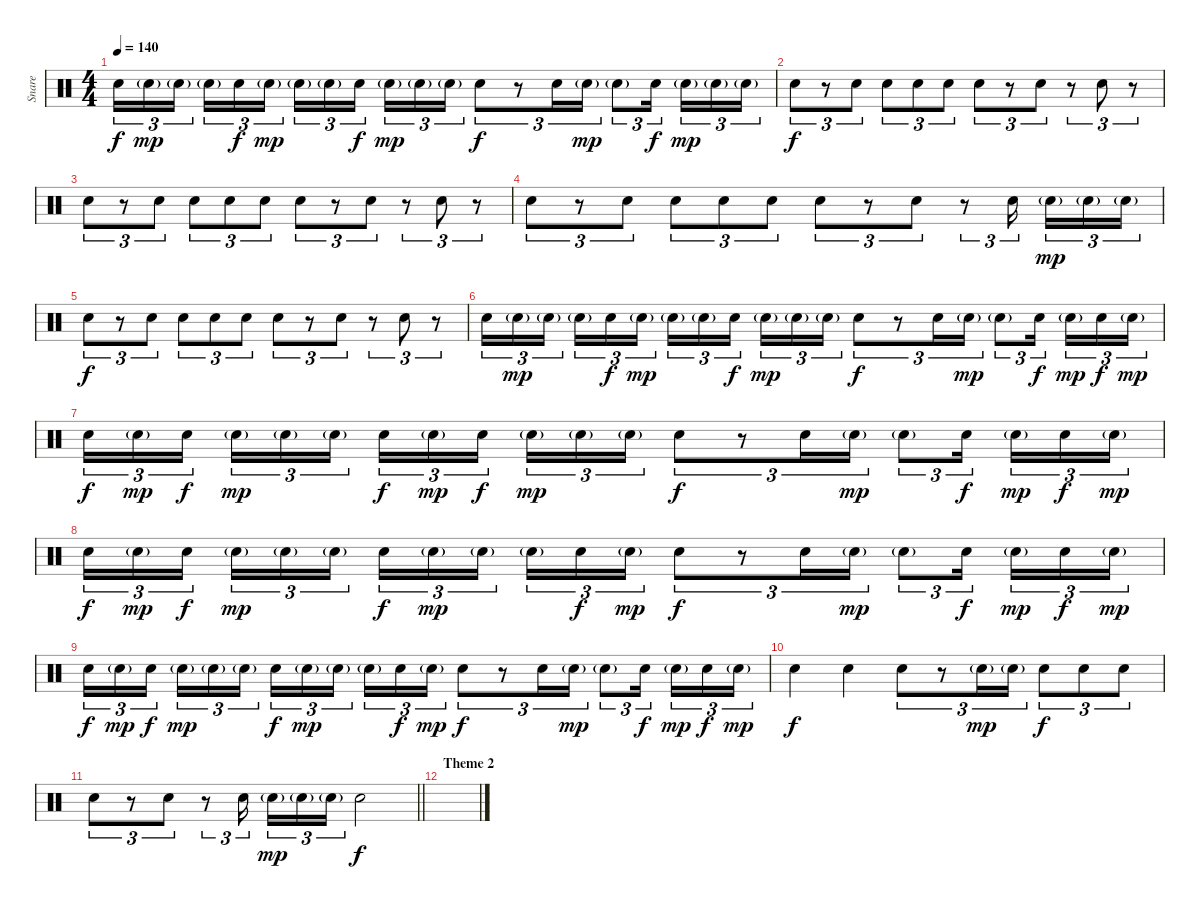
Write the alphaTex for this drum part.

\track ("Snare" "Snare") {instrument percussion}
\staff {score}
\articulation defaults
\ts (4 4)
\tempo 140
\clef neutral
\ks c "Electric Snare (hit)".16{tu (3 2) dy f} "Electric Snare (hit)"{g}.16{tu (3 2) dy mp} "Electric Snare (hit)"{g}.16{tu (3 2) beam splitsecondary} "Electric Snare (hit)"{g}.16{tu (3 2)} "Electric Snare (hit)".16{tu (3 2) dy f} "Electric Snare (hit)"{g}.16{tu (3 2) dy mp} "Electric Snare (hit)"{g}.16{tu (3 2)} "Electric Snare (hit)"{g}.16{tu (3 2)} "Electric Snare (hit)".16{tu (3 2) dy f beam splitsecondary} "Electric Snare (hit)"{g}.16{tu (3 2) dy mp} "Electric Snare (hit)"{g}.16{tu (3 2)} "Electric Snare (hit)"{g}.16{tu (3 2)} "Electric Snare (hit)".8{tu (3 2) dy f}
r.8{tu (3 2)} "Electric Snare (hit)".16{tu (3 2)} "Electric Snare (hit)"{g}.16{tu (3 2) dy mp} "Electric Snare (hit)"{g}.8{tu (3 2)} "Electric Snare (hit)".16{tu (3 2) dy f beam splitsecondary} "Electric Snare (hit)"{g}.16{tu (3 2) dy mp} "Electric Snare (hit)"{g}.16{tu (3 2)} "Electric Snare (hit)"{g}.16{tu (3 2)} |
"Electric Snare (hit)".8{tu (3 2) dy f} r.8{tu (3 2)} "Electric Snare (hit)".8{tu (3 2)} "Electric Snare (hit)".8{tu (3 2)} "Electric Snare (hit)".8{tu (3 2)} "Electric Snare (hit)".8{tu (3 2)} "Electric Snare (hit)".8{tu (3 2)} r.8{tu (3 2)} "Electric Snare (hit)".8{tu (3 2)} r.8{tu (3 2)} "Electric Snare (hit)".8{tu (3 2)} r.8{tu (3 2)} |
"Electric Snare (hit)".8{tu (3 2)} r.8{tu (3 2)} "Electric Snare (hit)".8{tu (3 2)} "Electric Snare (hit)".8{tu (3 2)} "Electric Snare (hit)".8{tu (3 2)} "Electric Snare (hit)".8{tu (3 2)} "Electric Snare (hit)".8{tu (3 2)} r.8{tu (3 2)} "Electric Snare (hit)".8{tu (3 2)} r.8{tu (3 2)} "Electric Snare (hit)".8{tu (3 2)} r.8{tu (3 2)} |
"Electric Snare (hit)".8{tu (3 2)} r.8{tu (3 2)} "Electric Snare (hit)".8{tu (3 2)} "Electric Snare (hit)".8{tu (3 2)} "Electric Snare (hit)".8{tu (3 2)} "Electric Snare (hit)".8{tu (3 2)} "Electric Snare (hit)".8{tu (3 2)} r.8{tu (3 2)} "Electric Snare (hit)".8{tu (3 2)} r.8{tu (3 2)} "Electric Snare (hit)".16{tu (3 2) beam splitsecondary} "Electric Snare (hit)"{g}.16{tu (3 2) dy mp} "Electric Snare (hit)"{g}.16{tu (3 2)} "Electric Snare (hit)"{g}.16{tu (3 2)} |
"Electric Snare (hit)".8{tu (3 2) dy f} r.8{tu (3 2)} "Electric Snare (hit)".8{tu (3 2)} "Electric Snare (hit)".8{tu (3 2)} "Electric Snare (hit)".8{tu (3 2)} "Electric Snare (hit)".8{tu (3 2)} "Electric Snare (hit)".8{tu (3 2)} r.8{tu (3 2)} "Electric Snare (hit)".8{tu (3 2)} r.8{tu (3 2)} "Electric Snare (hit)".8{tu (3 2)} r.8{tu (3 2)} |
"Electric Snare (hit)".16{tu (3 2)} "Electric Snare (hit)"{g}.16{tu (3 2) dy mp} "Electric Snare (hit)"{g}.16{tu (3 2) beam splitsecondary} "Electric Snare (hit)"{g}.16{tu (3 2)} "Electric Snare (hit)".16{tu (3 2) dy f} "Electric Snare (hit)"{g}.16{tu (3 2) dy mp} "Electric Snare (hit)"{g}.16{tu (3 2)} "Electric Snare (hit)"{g}.16{tu (3 2)} "Electric Snare (hit)".16{tu (3 2) dy f beam splitsecondary} "Electric Snare (hit)"{g}.16{tu (3 2) dy mp} "Electric Snare (hit)"{g}.16{tu (3 2)} "Electric Snare (hit)"{g}.16{tu (3 2)} "Electric Snare (hit)".8{tu (3 2) dy f} r.8{tu (3 2)} "Electric Snare (hit)".16{tu (3 2)} "Electric Snare (hit)"{g}.16{tu (3 2) dy mp} "Electric Snare (hit)"{g}.8{tu (3 2)} "Electric Snare (hit)".16{tu (3 2) dy f beam splitsecondary} "Electric Snare (hit)"{g}.16{tu (3 2) dy mp} "Electric Snare (hit)".16{tu (3 2) dy f} "Electric Snare (hit)"{g}.16{tu (3 2) dy mp} |
"Electric Snare (hit)".16{tu (3 2) dy f} "Electric Snare (hit)"{g}.16{tu (3 2) dy mp} "Electric Snare (hit)".16{tu (3 2) dy f beam splitsecondary} "Electric Snare (hit)"{g}.16{tu (3 2) dy mp} "Electric Snare (hit)"{g}.16{tu (3 2)} "Electric Snare (hit)"{g}.16{tu (3 2)} "Electric Snare (hit)".16{tu (3 2) dy f} "Electric Snare (hit)"{g}.16{tu (3 2) dy mp} "Electric Snare (hit)".16{tu (3 2) dy f beam splitsecondary} "Electric Snare (hit)"{g}.16{tu (3 2) dy mp} "Electric Snare (hit)"{g}.16{tu (3 2)} "Electric Snare (hit)"{g}.16{tu (3 2)} "Electric Snare (hit)".8{tu (3 2) dy f} r.8{tu (3 2)} "Electric Snare (hit)".16{tu (3 2)} "Electric Snare (hit)"{g}.16{tu (3 2) dy mp} "Electric Snare (hit)"{g}.8{tu (3 2)} "Electric Snare (hit)".16{tu (3 2) dy f beam splitsecondary} "Electric Snare (hit)"{g}.16{tu (3 2) dy mp} "Electric Snare (hit)".16{tu (3 2) dy f} "Electric Snare (hit)"{g}.16{tu (3 2) dy mp} |
"Electric Snare (hit)".16{tu (3 2) dy f} "Electric Snare (hit)"{g}.16{tu (3 2) dy mp} "Electric Snare (hit)".16{tu (3 2) dy f beam splitsecondary} "Electric Snare (hit)"{g}.16{tu (3 2) dy mp} "Electric Snare (hit)"{g}.16{tu (3 2)} "Electric Snare (hit)"{g}.16{tu (3 2)} "Electric Snare (hit)".16{tu (3 2) dy f} "Electric Snare (hit)"{g}.16{tu (3 2) dy mp} "Electric Snare (hit)"{g}.16{tu (3 2) beam splitsecondary} "Electric Snare (hit)"{g}.16{tu (3 2)} "Electric Snare (hit)".16{tu (3 2) dy f} "Electric Snare (hit)"{g}.16{tu (3 2) dy mp} "Electric Snare (hit)".8{tu (3 2) dy f} r.8{tu (3 2)} "Electric Snare (hit)".16{tu (3 2)} "Electric Snare (hit)"{g}.16{tu (3 2) dy mp} "Electric Snare (hit)"{g}.8{tu (3 2)} "Electric Snare (hit)".16{tu (3 2) dy f beam splitsecondary} "Electric Snare (hit)"{g}.16{tu (3 2) dy mp} "Electric Snare (hit)".16{tu (3 2) dy f} "Electric Snare (hit)"{g}.16{tu (3 2) dy mp} |
"Electric Snare (hit)".16{tu (3 2) dy f} "Electric Snare (hit)"{g}.16{tu (3 2) dy mp} "Electric Snare (hit)".16{tu (3 2) dy f beam splitsecondary} "Electric Snare (hit)"{g}.16{tu (3 2) dy mp} "Electric Snare (hit)"{g}.16{tu (3 2)} "Electric Snare (hit)"{g}.16{tu (3 2)} "Electric Snare (hit)".16{tu (3 2) dy f} "Electric Snare (hit)"{g}.16{tu (3 2) dy mp} "Electric Snare (hit)"{g}.16{tu (3 2) beam splitsecondary} "Electric Snare (hit)"{g}.16{tu (3 2)} "Electric Snare (hit)".16{tu (3 2) dy f} "Electric Snare (hit)"{g}.16{tu (3 2) dy mp} "Electric Snare (hit)".8{tu (3 2) dy f} r.8{tu (3 2)} "Electric Snare (hit)".16{tu (3 2)} "Electric Snare (hit)"{g}.16{tu (3 2) dy mp} "Electric Snare (hit)"{g}.8{tu (3 2)} "Electric Snare (hit)".16{tu (3 2) dy f beam splitsecondary} "Electric Snare (hit)"{g}.16{tu (3 2) dy mp} "Electric Snare (hit)".16{tu (3 2) dy f} "Electric Snare (hit)"{g}.16{tu (3 2) dy mp} |
"Electric Snare (hit)".4{dy f} "Electric Snare (hit)".4 "Electric Snare (hit)".8{tu (3 2)} r.8{tu (3 2)} "Electric Snare (hit)"{g}.16{tu (3 2) dy mp} "Electric Snare (hit)"{g}.16{tu (3 2)} "Electric Snare (hit)".8{tu (3 2) dy f} "Electric Snare (hit)".8{tu (3 2)} "Electric Snare (hit)".8{tu (3 2)} |
\barLineRight lightlight "Electric Snare (hit)".8{tu (3 2)}
r.8{tu (3 2)} "Electric Snare (hit)".8{tu (3 2)} r.8{tu (3 2)} "Electric Snare (hit)".16{tu (3 2) beam splitsecondary} "Electric Snare (hit)"{g}.16{tu (3 2) dy mp} "Electric Snare (hit)"{g}.16{tu (3 2)} "Electric Snare (hit)"{g}.16{tu (3 2)} "Electric Snare (hit)".2{dy f} |
\section ("" "Theme 2")
